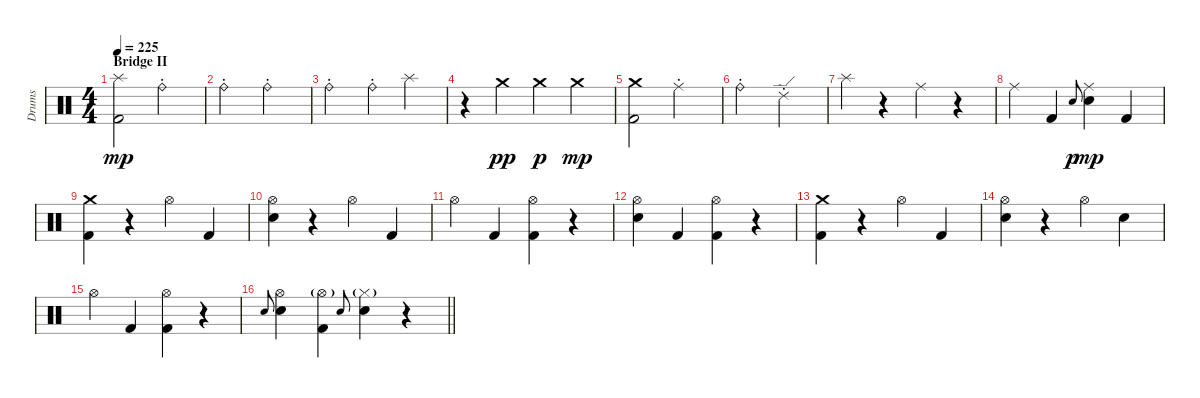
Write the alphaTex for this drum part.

\track ("Drums" "Drums") {instrument percussion}
\staff {score}
\articulation defaults
\ts (4 4)
\section ("" "Bridge II")
\tempo 225
\clef neutral
\ks c
("Splash (hit)" "Kick (hit) 2").2{dy mp} "Ride (bell)"{st}.2 |
"Ride (bell)"{st}.2 "Ride (bell)"{st}.2 |
"Ride (bell)"{st}.2 "Ride (bell)"{st}.4 "Splash (hit)".4 |
r.4 "Crash medium (hit)".4{dy pp} "Crash medium (hit)".4{dy p} "Crash medium (hit)".4{dy mp} |
("Crash medium (hit)" "Kick (hit) 2").2 "Ride (middle)"{st}.2 |
"Ride (bell)"{st}.2 "Ride (edge) 2"{st}.2 |
"Splash (hit)".4 r.4 "Ride (middle)".4 r.4 |
"Ride (middle)".4 "Kick (hit) 2".4 "Electric Snare (hit)".8{gr onbeat dy p} ("Ride (middle)" "Electric Snare (hit)").4{dy mp} "Kick (hit) 2".4 |
("Crash medium (hit)" "Kick (hit) 2").4 r.4 "Hi-Hat (open)".4 "Kick (hit) 2".4 |
("Hi-Hat (open)" "Electric Snare (hit)").4 r.4 "Hi-Hat (open)".4 "Kick (hit) 2".4 |
"Hi-Hat (open)".4 "Kick (hit) 2".4 ("Hi-Hat (open)" "Kick (hit) 2").4 r.4 |
("Hi-Hat (open)" "Electric Snare (hit)").4 "Kick (hit) 2".4 ("Hi-Hat (open)" "Kick (hit) 2").4 r.4 |
("Crash medium (hit)" "Kick (hit) 2").4 r.4 "Hi-Hat (open)".4 "Kick (hit) 2".4 |
("Hi-Hat (open)" "Electric Snare (hit)").4 r.4 "Hi-Hat (open)".4 "Electric Snare (hit)".4 |
"Hi-Hat (open)".4 "Kick (hit) 2".4 ("Hi-Hat (open)" "Kick (hit) 2").4 r.4 |
\barLineRight lightlight "Electric Snare (hit)".8{gr onbeat}
("Hi-Hat (open)" "Electric Snare (hit)").4 ("Hi-Hat (open)"{g} "Kick (hit) 2").4 "Electric Snare (hit)".8{gr onbeat} ("Hi-Hat (closed)"{g} "Electric Snare (hit)").4 r.4
